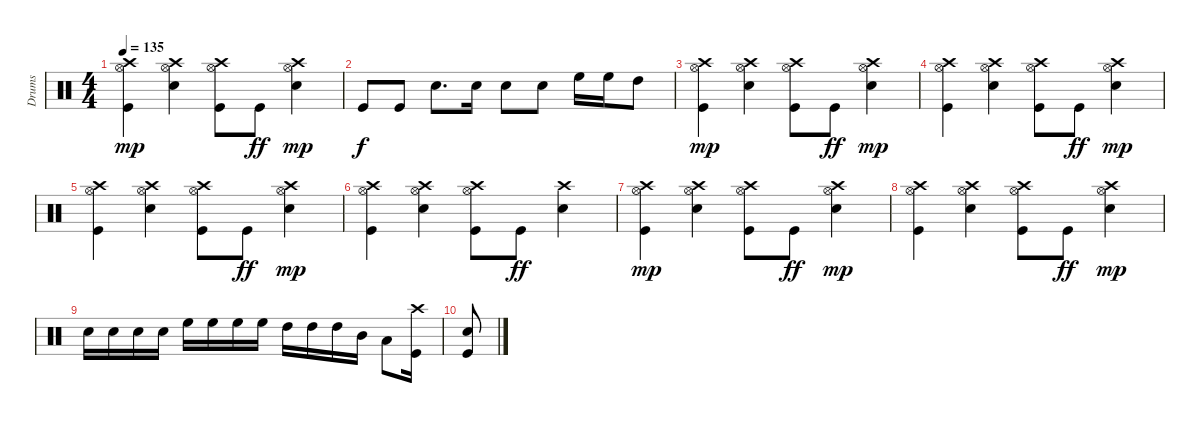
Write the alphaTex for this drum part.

\track ("Drums" "Drums") {instrument percussion}
\staff {score}
\articulation defaults
\ts (4 4)
\tempo 135
\clef neutral
\ks c
("Kick (hit)" "Hi-Hat (open)" "Crash high (hit)").4{dy mp} ("Snare (hit) 2" "Hi-Hat (open)" "Crash high (hit)").4 ("Kick (hit)" "Hi-Hat (open)" "Crash high (hit)").8 "Kick (hit)".8{dy ff} ("Snare (hit) 2" "Hi-Hat (open)" "Crash high (hit)").4{dy mp} |
"Kick (hit)".8{dy f} "Kick (hit)".8 "Snare (hit) 2".8{d} "Snare (hit) 2".16 "Snare (hit) 2".8 "Snare (hit) 2".8 "High Floor Tom (hit)".16 "High Floor Tom (hit)".16 "High Tom (hit)".8 |
("Kick (hit)" "Hi-Hat (open)" "Crash high (hit)").4{dy mp} ("Snare (hit) 2" "Hi-Hat (open)" "Crash high (hit)").4 ("Kick (hit)" "Hi-Hat (open)" "Crash high (hit)").8 "Kick (hit)".8{dy ff} ("Snare (hit) 2" "Hi-Hat (open)" "Crash high (hit)").4{dy mp} |
("Kick (hit)" "Hi-Hat (open)" "Crash high (hit)").4 ("Snare (hit) 2" "Hi-Hat (open)" "Crash high (hit)").4 ("Kick (hit)" "Hi-Hat (open)" "Crash high (hit)").8 "Kick (hit)".8{dy ff} ("Snare (hit) 2" "Hi-Hat (open)" "Crash high (hit)").4{dy mp} |
("Kick (hit)" "Hi-Hat (open)" "Crash high (hit)").4 ("Snare (hit) 2" "Hi-Hat (open)" "Crash high (hit)").4 ("Kick (hit)" "Hi-Hat (open)" "Crash high (hit)").8 "Kick (hit)".8{dy ff} ("Snare (hit) 2" "Hi-Hat (open)" "Crash high (hit)").4{dy mp} |
("Kick (hit)" "Hi-Hat (open)" "Crash high (hit)").4 ("Snare (hit) 2" "Hi-Hat (open)" "Crash high (hit)").4 ("Kick (hit)" "Hi-Hat (open)" "Crash high (hit)").8 "Kick (hit)".8{dy ff} ("Snare (hit) 2" "Crash high (hit)").4 |
("Kick (hit)" "Hi-Hat (open)" "Crash high (hit)").4{dy mp} ("Snare (hit) 2" "Hi-Hat (open)" "Crash high (hit)").4 ("Kick (hit)" "Hi-Hat (open)" "Crash high (hit)").8 "Kick (hit)".8{dy ff} ("Snare (hit) 2" "Hi-Hat (open)" "Crash high (hit)").4{dy mp} |
("Kick (hit)" "Hi-Hat (open)" "Crash high (hit)").4 ("Snare (hit) 2" "Hi-Hat (open)" "Crash high (hit)").4 ("Kick (hit)" "Hi-Hat (open)" "Crash high (hit)").8 "Kick (hit)".8{dy ff} ("Snare (hit) 2" "Hi-Hat (open)" "Crash high (hit)").4{dy mp} |
"Snare (hit) 2".16 "Snare (hit) 2".16 "Snare (hit) 2".16 "Snare (hit) 2".16 "High Floor Tom (hit)".16 "High Floor Tom (hit)".16 "High Floor Tom (hit)".16 "High Floor Tom (hit)".16 "High Tom (hit)".16 "High Tom (hit)".16 "High Tom (hit)".16 "Mid Tom (hit)".16 "Low Tom (hit)".8 ("Kick (hit)" "Crash high (hit)").16 |
("Kick (hit)" "Snare (hit) 2").8
